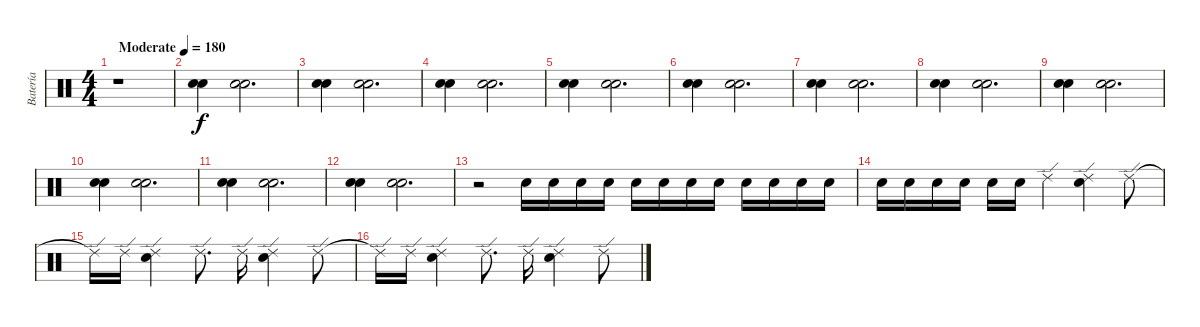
\track ("Batería" "Batería") {instrument percussion}
\staff {score}
\articulation defaults
\ts (4 4)
\tempo (180 "Moderate")
\clef neutral
\ks c
r.1{dy f} |
("Snare (hit) 2" "Snare (hit) 2").4 ("Snare (hit) 2" "Snare (hit) 2").2{d} |
("Snare (hit) 2" "Snare (hit) 2").4 ("Snare (hit) 2" "Snare (hit) 2").2{d} |
("Snare (hit) 2" "Snare (hit) 2").4 ("Snare (hit) 2" "Snare (hit) 2").2{d} |
("Snare (hit) 2" "Snare (hit) 2").4 ("Snare (hit) 2" "Snare (hit) 2").2{d} |
("Snare (hit) 2" "Snare (hit) 2").4 ("Snare (hit) 2" "Snare (hit) 2").2{d} |
("Snare (hit) 2" "Snare (hit) 2").4 ("Snare (hit) 2" "Snare (hit) 2").2{d} |
("Snare (hit) 2" "Snare (hit) 2").4 ("Snare (hit) 2" "Snare (hit) 2").2{d} |
("Snare (hit) 2" "Snare (hit) 2").4 ("Snare (hit) 2" "Snare (hit) 2").2{d} |
("Snare (hit) 2" "Snare (hit) 2").4 ("Snare (hit) 2" "Snare (hit) 2").2{d} |
("Snare (hit) 2" "Snare (hit) 2").4 ("Snare (hit) 2" "Snare (hit) 2").2{d} |
("Snare (hit) 2" "Snare (hit) 2").4 ("Snare (hit) 2" "Snare (hit) 2").2{d} |
r.2 "Snare (hit) 2".16 "Snare (hit) 2".16 "Snare (hit) 2".16 "Snare (hit) 2".16 "Snare (hit) 2".16 "Snare (hit) 2".16 "Snare (hit) 2".16 "Snare (hit) 2".16 "Snare (hit) 2".16 "Snare (hit) 2".16 "Snare (hit) 2".16 "Snare (hit) 2".16 |
"Snare (hit) 2".16 "Snare (hit) 2".16 "Snare (hit) 2".16 "Snare (hit) 2".16 "Snare (hit) 2".16 "Snare (hit) 2".16 "Ride (edge) 2".4 ("Ride (edge) 2" "Snare (hit) 2").4 "Ride (edge) 2".8 |
"Ride (edge) 2"{t}.16 "Ride (edge) 2".16 ("Ride (edge) 2" "Snare (hit) 2").4 "Ride (edge) 2".8{d} "Ride (edge) 2".16 ("Ride (edge) 2" "Snare (hit) 2").4 "Ride (edge) 2".8 |
"Ride (edge) 2"{t}.16 "Ride (edge) 2".16 ("Ride (edge) 2" "Snare (hit) 2").4 "Ride (edge) 2".8{d} "Ride (edge) 2".16 ("Ride (edge) 2" "Snare (hit) 2").4 "Ride (edge) 2".8
